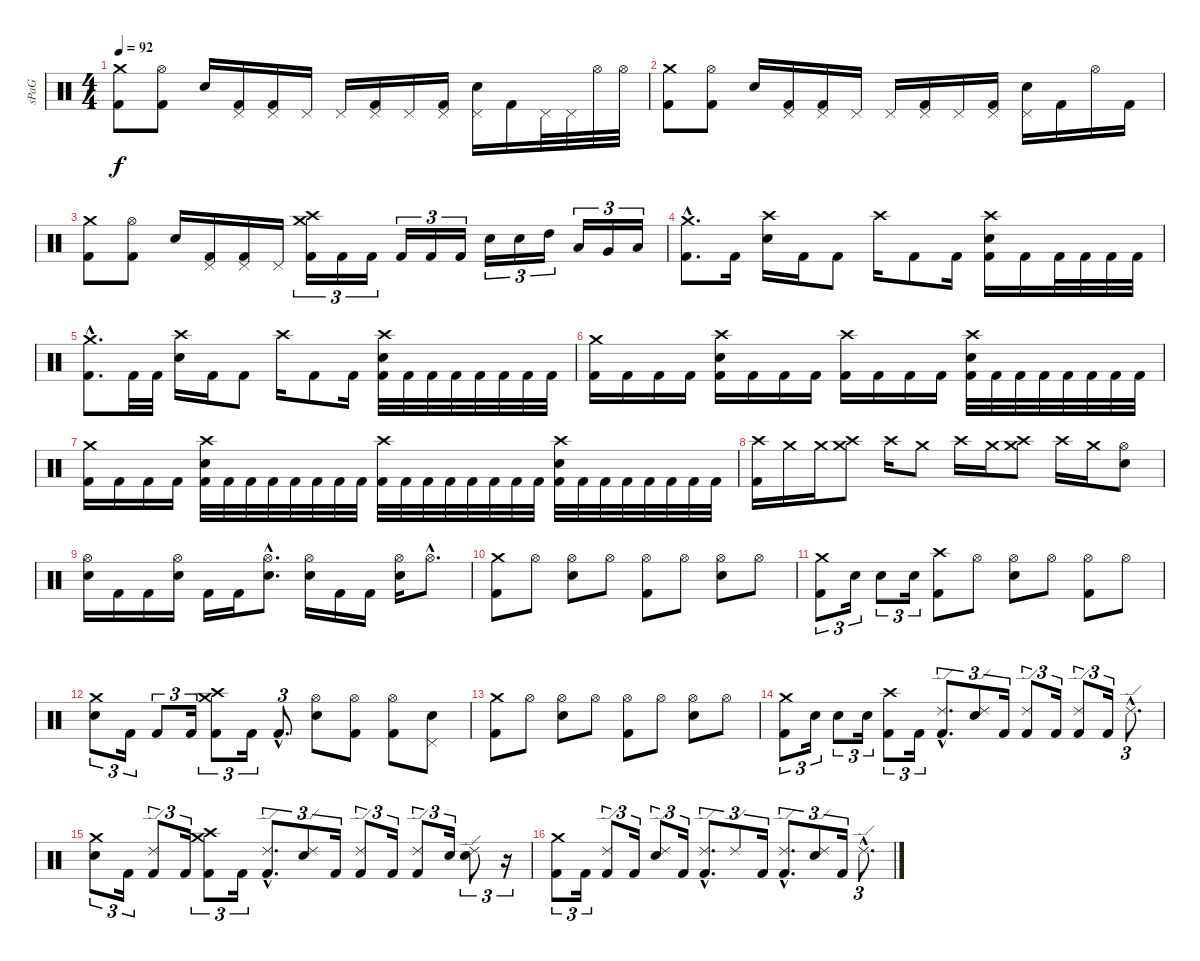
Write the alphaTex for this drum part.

\track ("sPaG" "sPaG") {instrument percussion}
\staff {score}
\articulation defaults
\ts (4 4)
\tempo 92
\clef neutral
\ks c
("Crash medium (hit)" "Kick (hit) 2").8{dy f} ("Hi-Hat (open)" "Kick (hit) 2").8 "Snare (hit) 2".16 ("Pedal Hi-Hat (hit)" "Kick (hit) 2").16 ("Pedal Hi-Hat (hit)" "Kick (hit) 2").16 "Pedal Hi-Hat (hit)".16 "Pedal Hi-Hat (hit)".16 ("Pedal Hi-Hat (hit)" "Kick (hit) 2").16 "Pedal Hi-Hat (hit)".16 ("Pedal Hi-Hat (hit)" "Kick (hit) 2").16 ("Pedal Hi-Hat (hit)" "Snare (hit) 2").16 "Kick (hit) 2".16 "Pedal Hi-Hat (hit)".32 "Pedal Hi-Hat (hit)".32 "Hi-Hat (open)".32 "Hi-Hat (open)".32 |
("Crash medium (hit)" "Kick (hit) 2").8 ("Hi-Hat (open)" "Kick (hit) 2").8 "Snare (hit) 2".16 ("Pedal Hi-Hat (hit)" "Kick (hit) 2").16 ("Pedal Hi-Hat (hit)" "Kick (hit) 2").16 "Pedal Hi-Hat (hit)".16 "Pedal Hi-Hat (hit)".16 ("Pedal Hi-Hat (hit)" "Kick (hit) 2").16 "Pedal Hi-Hat (hit)".16 ("Pedal Hi-Hat (hit)" "Kick (hit) 2").16 ("Pedal Hi-Hat (hit)" "Snare (hit) 2").16 "Kick (hit) 2".16 "Hi-Hat (open)".16 "Kick (hit) 2".16 |
("Crash medium (hit)" "Kick (hit) 2").8 ("Hi-Hat (open)" "Kick (hit) 2").8 "Snare (hit) 2".16 ("Pedal Hi-Hat (hit)" "Kick (hit) 2").16 ("Pedal Hi-Hat (hit)" "Kick (hit) 2").16 "Pedal Hi-Hat (hit)".16 ("Crash high (hit)" "Crash medium (hit)" "Kick (hit) 2").16{tu (3 2)} "Kick (hit) 2".16{tu (3 2)} "Kick (hit) 2".16{tu (3 2)} "Kick (hit) 2".16{tu (3 2)} "Kick (hit) 2".16{tu (3 2)} "Kick (hit) 2".16{tu (3 2)} "Snare (hit) 2".16{tu (3 2)} "Snare (hit) 2".16{tu (3 2)} "High Tom (hit)".16{tu (3 2)} "Low Tom (hit)".16{tu (3 2)} "Very Low Tom (hit)".16{tu (3 2)} "Low Floor Tom (hit)".16{tu (3 2)} |
("Crash medium (hit)"{hac} "Kick (hit) 2"{hac}).8{d} "Kick (hit) 2".16 ("Crash high (hit)" "Snare (hit) 2").16 "Kick (hit) 2".16 "Kick (hit) 2".8 "Crash high (hit)".16 "Kick (hit) 2".8 "Kick (hit) 2".16 ("Crash high (hit)" "Snare (hit) 2" "Kick (hit) 2").16 "Kick (hit) 2".16 "Kick (hit) 2".32 "Kick (hit) 2".32 "Kick (hit) 2".32 "Kick (hit) 2".32 |
("Crash medium (hit)"{hac} "Kick (hit) 2"{hac}).8{d} "Kick (hit) 2".32 "Kick (hit) 2".32 ("Crash high (hit)" "Snare (hit) 2").16 "Kick (hit) 2".16 "Kick (hit) 2".8 "Crash high (hit)".16 "Kick (hit) 2".8 "Kick (hit) 2".16 ("Crash high (hit)" "Snare (hit) 2" "Kick (hit) 2").32 "Kick (hit) 2".32 "Kick (hit) 2".32 "Kick (hit) 2".32 "Kick (hit) 2".32 "Kick (hit) 2".32 "Kick (hit) 2".32 "Kick (hit) 2".32 |
("Crash medium (hit)" "Kick (hit) 2").16 "Kick (hit) 2".16 "Kick (hit) 2".16 "Kick (hit) 2".16 ("Crash high (hit)" "Snare (hit) 2" "Kick (hit) 2").16 "Kick (hit) 2".16 "Kick (hit) 2".16 "Kick (hit) 2".16 ("Crash high (hit)" "Kick (hit) 2").16 "Kick (hit) 2".16 "Kick (hit) 2".16 "Kick (hit) 2".16 ("Crash high (hit)" "Snare (hit) 2" "Kick (hit) 2").32 "Kick (hit) 2".32 "Kick (hit) 2".32 "Kick (hit) 2".32 "Kick (hit) 2".32 "Kick (hit) 2".32 "Kick (hit) 2".32 "Kick (hit) 2".32 |
("Crash medium (hit)" "Kick (hit) 2").16 "Kick (hit) 2".16 "Kick (hit) 2".16 "Kick (hit) 2".16 ("Crash high (hit)" "Snare (hit) 2" "Kick (hit) 2").32 "Kick (hit) 2".32 "Kick (hit) 2".32 "Kick (hit) 2".32 "Kick (hit) 2".32 "Kick (hit) 2".32 "Kick (hit) 2".32 "Kick (hit) 2".32 ("Crash high (hit)" "Kick (hit) 2").32 "Kick (hit) 2".32 "Kick (hit) 2".32 "Kick (hit) 2".32 "Kick (hit) 2".32 "Kick (hit) 2".32 "Kick (hit) 2".32 "Kick (hit) 2".32 ("Crash high (hit)" "Snare (hit) 2" "Kick (hit) 2").32 "Kick (hit) 2".32 "Kick (hit) 2".32 "Kick (hit) 2".32 "Kick (hit) 2".32 "Kick (hit) 2".32 "Kick (hit) 2".32 "Kick (hit) 2".32 |
("Crash high (hit)" "Kick (hit) 2").16 "Crash medium (hit)".16 "Crash medium (hit)".16 ("Crash high (hit)" "Crash medium (hit)").8 "Crash high (hit)".16 "Crash medium (hit)".8 "Crash high (hit)".16 "Crash medium (hit)".16 ("Crash high (hit)" "Crash medium (hit)").8 "Crash high (hit)".16 "Crash medium (hit)".16 ("Hi-Hat (open)" "Snare (hit) 2").8 |
("Hi-Hat (open)" "Snare (hit) 2").16 "Kick (hit) 2".16 "Kick (hit) 2".16 ("Hi-Hat (open)" "Snare (hit) 2").16 "Kick (hit) 2".16 "Kick (hit) 2".16 ("Hi-Hat (open)"{hac} "Snare (hit) 2"{hac}).8{d} ("Hi-Hat (open)" "Snare (hit) 2").16 "Kick (hit) 2".16 "Kick (hit) 2".16 ("Hi-Hat (open)" "Snare (hit) 2").16 "Hi-Hat (open)"{hac}.8{d} |
("Crash medium (hit)" "Kick (hit) 2").8 "Hi-Hat (open)".8 ("Hi-Hat (open)" "Snare (hit) 2").8 "Hi-Hat (open)".8 ("Hi-Hat (open)" "Kick (hit) 2").8 "Hi-Hat (open)".8 ("Hi-Hat (open)" "Snare (hit) 2").8 "Hi-Hat (open)".8 |
("Crash medium (hit)" "Kick (hit) 2").8{tu (3 2)} "Snare (hit) 2".16{tu (3 2)} "Snare (hit) 2".8{tu (3 2)} "Snare (hit) 2".16{tu (3 2)} ("Crash high (hit)" "Kick (hit) 2").8 "Hi-Hat (open)".8 ("Hi-Hat (open)" "Snare (hit) 2").8 "Hi-Hat (open)".8 ("Hi-Hat (open)" "Kick (hit) 2").8 "Hi-Hat (open)".8 |
("Crash medium (hit)" "Snare (hit) 2").8{tu (3 2)} "Kick (hit) 2".16{tu (3 2)} "Kick (hit) 2".8{tu (3 2)} "Kick (hit) 2".16{tu (3 2)} ("Crash medium (hit)" "Crash high (hit)" "Kick (hit) 2").8{tu (3 2)} "Kick (hit) 2".16{tu (3 2)} "Kick (hit) 2"{hac}.8{d tu (3 2)} ("Hi-Hat (open)" "Snare (hit) 2").8 ("Hi-Hat (open)" "Kick (hit) 2").8 ("Hi-Hat (open)" "Kick (hit) 2").8 ("Pedal Hi-Hat (hit)" "Snare (hit) 2").8 |
("Crash medium (hit)" "Kick (hit) 2").8 "Hi-Hat (open)".8 ("Hi-Hat (open)" "Snare (hit) 2").8 "Hi-Hat (open)".8 ("Hi-Hat (open)" "Kick (hit) 2").8 "Hi-Hat (open)".8 ("Hi-Hat (open)" "Snare (hit) 2").8 "Hi-Hat (open)".8 |
("Crash medium (hit)" "Kick (hit) 2").8{tu (3 2)} "Snare (hit) 2".16{tu (3 2)} "Snare (hit) 2".8{tu (3 2)} "Snare (hit) 2".16{tu (3 2)} ("Crash high (hit)" "Kick (hit) 2").8{tu (3 2)} "Kick (hit) 2".16{tu (3 2)} ("Ride (edge) 2"{hac} "Kick (hit) 2"{hac}).8{d tu (3 2)} ("Ride (edge) 2" "Snare (hit) 2").8{tu (3 2)} "Kick (hit) 2".16{tu (3 2)} ("Ride (edge) 2" "Kick (hit) 2").8{tu (3 2)} "Kick (hit) 2".16{tu (3 2)} ("Ride (edge) 2" "Kick (hit) 2").8{tu (3 2)} "Kick (hit) 2".16{tu (3 2)} "Ride (edge) 2"{hac}.8{d tu (3 2)} |
("Crash medium (hit)" "Snare (hit) 2").8{tu (3 2)} "Kick (hit) 2".16{tu (3 2)} ("Ride (edge) 2" "Kick (hit) 2").8{tu (3 2)} "Kick (hit) 2".16{tu (3 2)} ("Crash medium (hit)" "Crash high (hit)" "Kick (hit) 2").8{tu (3 2)} "Kick (hit) 2".16{tu (3 2)} ("Ride (edge) 2"{hac} "Kick (hit) 2"{hac}).8{d tu (3 2)} ("Ride (edge) 2" "Snare (hit) 2").8{tu (3 2)} "Kick (hit) 2".16{tu (3 2)} ("Ride (edge) 2" "Kick (hit) 2").8{tu (3 2)} "Kick (hit) 2".16{tu (3 2)} ("Ride (edge) 2" "Kick (hit) 2").8{tu (3 2)} "Snare (hit) 2".16{tu (3 2)} ("Ride (edge) 2" "Snare (hit) 2").8{tu (3 2)} r.16{tu (3 2)} |
("Crash medium (hit)" "Kick (hit) 2").8{tu (3 2)} "Kick (hit) 2".16{tu (3 2)} ("Ride (edge) 2" "Kick (hit) 2").8{tu (3 2)} "Kick (hit) 2".16{tu (3 2)} ("Ride (edge) 2" "Snare (hit) 2").8{tu (3 2)} "Kick (hit) 2".16{tu (3 2)} ("Ride (edge) 2"{hac} "Kick (hit) 2"{hac}).8{d tu (3 2)} "Ride (edge) 2".8{tu (3 2)} "Kick (hit) 2".16{tu (3 2)} ("Ride (edge) 2"{hac} "Kick (hit) 2"{hac}).8{d tu (3 2)} ("Ride (edge) 2" "Snare (hit) 2").8{tu (3 2)} "Kick (hit) 2".16{tu (3 2)} "Ride (edge) 2"{hac}.8{d tu (3 2)}
